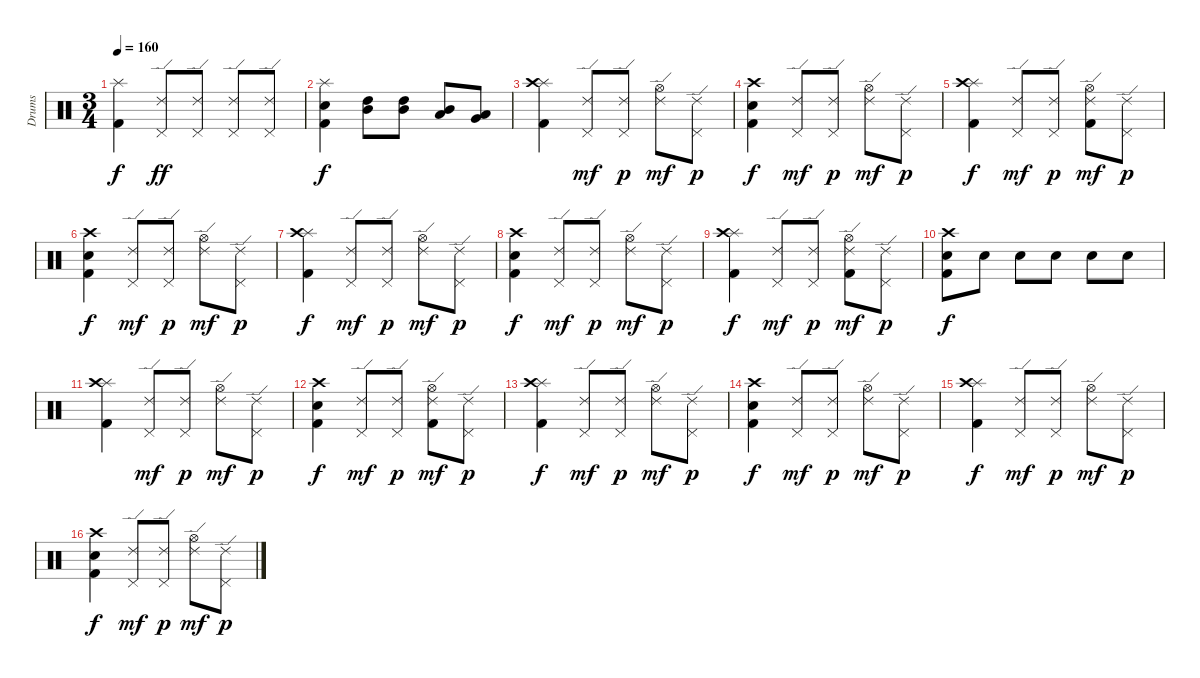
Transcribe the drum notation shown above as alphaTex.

\track ("Drums" "Drums") {instrument percussion}
\staff {score}
\articulation defaults
\ts (3 4)
\tempo 160
\clef neutral
\ks c
("Splash (hit)" "Kick (hit) 2").4{dy f} ("Ride (edge) 2" "Pedal Hi-Hat (hit)").8{dy ff} ("Ride (edge) 2" "Pedal Hi-Hat (hit)").8 ("Ride (edge) 2" "Pedal Hi-Hat (hit)").8 ("Ride (edge) 2" "Pedal Hi-Hat (hit)").8 |
("Splash (hit)" "Electric Snare (hit)" "Kick (hit) 2").4{dy f} ("High Tom (hit)" "Mid Tom (hit)").8 ("High Tom (hit)" "Mid Tom (hit)").8 ("Mid Tom (hit)" "Low Tom (hit)").8 ("Low Tom (hit)" "Very Low Tom (hit)").8 |
("Splash (hit)" "Crash high (hit)" "Kick (hit) 2").4 ("Ride (edge) 2" "Pedal Hi-Hat (hit)").8{dy mf} ("Ride (edge) 2" "Pedal Hi-Hat (hit)").8{dy p} ("Ride (edge) 2" "Hi-Hat (open)").8{dy mf} ("Ride (edge) 2" "Pedal Hi-Hat (hit)").8{dy p} |
("Crash high (hit)" "Electric Snare (hit)" "Kick (hit) 2").4{dy f} ("Ride (edge) 2" "Pedal Hi-Hat (hit)").8{dy mf} ("Ride (edge) 2" "Pedal Hi-Hat (hit)").8{dy p} ("Ride (edge) 2" "Hi-Hat (open)").8{dy mf} ("Ride (edge) 2" "Pedal Hi-Hat (hit)").8{dy p} |
("Splash (hit)" "Crash high (hit)" "Kick (hit) 2").4{dy f} ("Ride (edge) 2" "Pedal Hi-Hat (hit)").8{dy mf} ("Ride (edge) 2" "Pedal Hi-Hat (hit)").8{dy p} ("Ride (edge) 2" "Hi-Hat (open)" "Kick (hit) 2").8{dy mf} ("Ride (edge) 2" "Pedal Hi-Hat (hit)").8{dy p} |
("Crash high (hit)" "Electric Snare (hit)" "Kick (hit) 2").4{dy f} ("Ride (edge) 2" "Pedal Hi-Hat (hit)").8{dy mf} ("Ride (edge) 2" "Pedal Hi-Hat (hit)").8{dy p} ("Ride (edge) 2" "Hi-Hat (open)").8{dy mf} ("Ride (edge) 2" "Pedal Hi-Hat (hit)").8{dy p} |
("Splash (hit)" "Crash high (hit)" "Kick (hit) 2").4{dy f} ("Ride (edge) 2" "Pedal Hi-Hat (hit)").8{dy mf} ("Ride (edge) 2" "Pedal Hi-Hat (hit)").8{dy p} ("Ride (edge) 2" "Hi-Hat (open)").8{dy mf} ("Ride (edge) 2" "Pedal Hi-Hat (hit)").8{dy p} |
("Crash high (hit)" "Electric Snare (hit)" "Kick (hit) 2").4{dy f} ("Ride (edge) 2" "Pedal Hi-Hat (hit)").8{dy mf} ("Ride (edge) 2" "Pedal Hi-Hat (hit)").8{dy p} ("Ride (edge) 2" "Hi-Hat (open)").8{dy mf} ("Ride (edge) 2" "Pedal Hi-Hat (hit)").8{dy p} |
("Splash (hit)" "Crash high (hit)" "Kick (hit) 2").4{dy f} ("Ride (edge) 2" "Pedal Hi-Hat (hit)").8{dy mf} ("Ride (edge) 2" "Pedal Hi-Hat (hit)").8{dy p} ("Ride (edge) 2" "Hi-Hat (open)" "Kick (hit) 2").8{dy mf} ("Ride (edge) 2" "Pedal Hi-Hat (hit)").8{dy p} |
("Crash high (hit)" "Electric Snare (hit)" "Kick (hit) 2").8{dy f} "Electric Snare (hit)".8 "Electric Snare (hit)".8 "Electric Snare (hit)".8 "Electric Snare (hit)".8 "Electric Snare (hit)".8 |
("Splash (hit)" "Crash high (hit)" "Kick (hit) 2").4 ("Ride (edge) 2" "Pedal Hi-Hat (hit)").8{dy mf} ("Ride (edge) 2" "Pedal Hi-Hat (hit)").8{dy p} ("Ride (edge) 2" "Hi-Hat (open)").8{dy mf} ("Ride (edge) 2" "Pedal Hi-Hat (hit)").8{dy p} |
("Crash high (hit)" "Electric Snare (hit)" "Kick (hit) 2").4{dy f} ("Ride (edge) 2" "Pedal Hi-Hat (hit)").8{dy mf} ("Ride (edge) 2" "Pedal Hi-Hat (hit)").8{dy p} ("Ride (edge) 2" "Hi-Hat (open)" "Kick (hit) 2").8{dy mf} ("Ride (edge) 2" "Pedal Hi-Hat (hit)").8{dy p} |
("Splash (hit)" "Crash high (hit)" "Kick (hit) 2").4{dy f} ("Ride (edge) 2" "Pedal Hi-Hat (hit)").8{dy mf} ("Ride (edge) 2" "Pedal Hi-Hat (hit)").8{dy p} ("Ride (edge) 2" "Hi-Hat (open)").8{dy mf} ("Ride (edge) 2" "Pedal Hi-Hat (hit)").8{dy p} |
("Crash high (hit)" "Electric Snare (hit)" "Kick (hit) 2").4{dy f} ("Ride (edge) 2" "Pedal Hi-Hat (hit)").8{dy mf} ("Ride (edge) 2" "Pedal Hi-Hat (hit)").8{dy p} ("Ride (edge) 2" "Hi-Hat (open)").8{dy mf} ("Ride (edge) 2" "Pedal Hi-Hat (hit)").8{dy p} |
("Splash (hit)" "Crash high (hit)" "Kick (hit) 2").4{dy f} ("Ride (edge) 2" "Pedal Hi-Hat (hit)").8{dy mf} ("Ride (edge) 2" "Pedal Hi-Hat (hit)").8{dy p} ("Ride (edge) 2" "Hi-Hat (open)").8{dy mf} ("Ride (edge) 2" "Pedal Hi-Hat (hit)").8{dy p} |
("Crash high (hit)" "Electric Snare (hit)" "Kick (hit) 2").4{dy f} ("Ride (edge) 2" "Pedal Hi-Hat (hit)").8{dy mf} ("Ride (edge) 2" "Pedal Hi-Hat (hit)").8{dy p} ("Ride (edge) 2" "Hi-Hat (open)").8{dy mf} ("Ride (edge) 2" "Pedal Hi-Hat (hit)").8{dy p}
